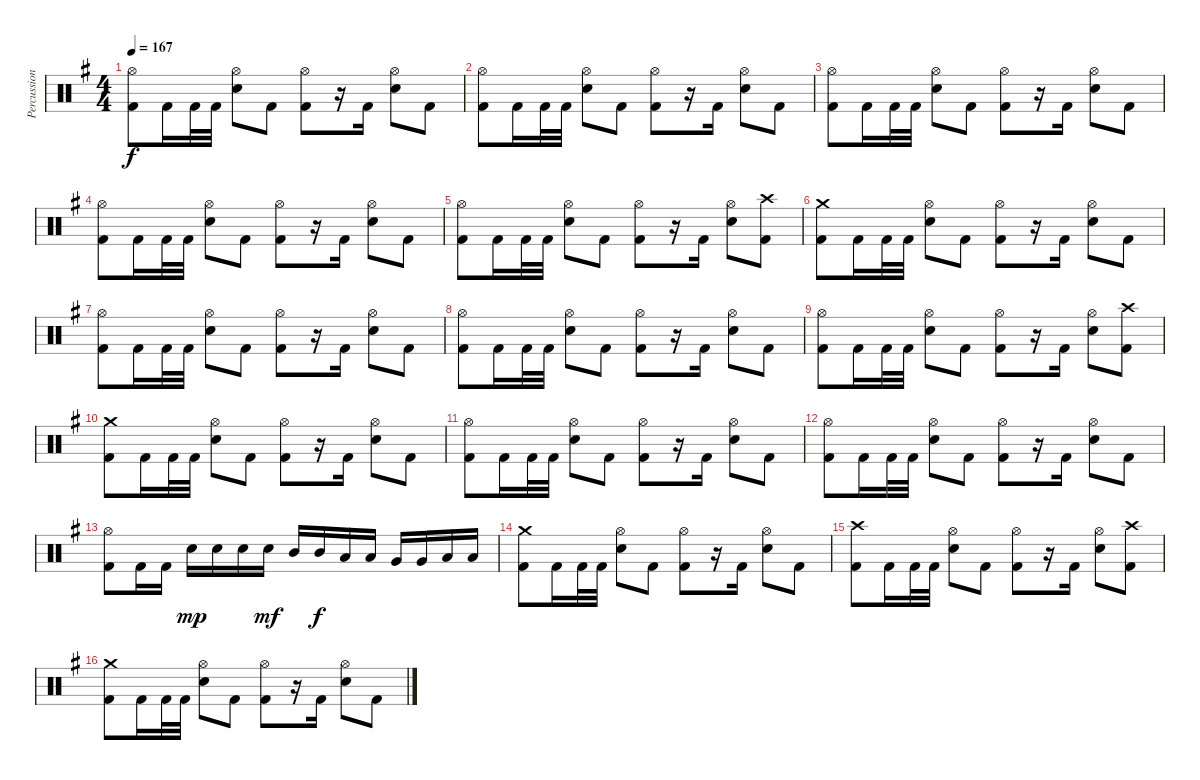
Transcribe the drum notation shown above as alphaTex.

\track ("Percussion" "Percussion") {instrument percussion}
\staff {score}
\articulation defaults
\ts (4 4)
\tempo 167
\clef neutral
\ks g
("Hi-Hat (open)" "Kick (hit) 2").8{dy f} "Kick (hit) 2".16 "Kick (hit) 2".32 "Kick (hit) 2".32 ("Hi-Hat (open)" "Snare (hit) 2").8 "Kick (hit) 2".8 ("Hi-Hat (open)" "Kick (hit) 2").8 r.16 "Kick (hit) 2".16 ("Hi-Hat (open)" "Snare (hit) 2").8 "Kick (hit) 2".8 |
("Hi-Hat (open)" "Kick (hit) 2").8 "Kick (hit) 2".16 "Kick (hit) 2".32 "Kick (hit) 2".32 ("Hi-Hat (open)" "Snare (hit) 2").8 "Kick (hit) 2".8 ("Hi-Hat (open)" "Kick (hit) 2").8 r.16 "Kick (hit) 2".16 ("Hi-Hat (open)" "Snare (hit) 2").8 "Kick (hit) 2".8 |
("Hi-Hat (open)" "Kick (hit) 2").8 "Kick (hit) 2".16 "Kick (hit) 2".32 "Kick (hit) 2".32 ("Hi-Hat (open)" "Snare (hit) 2").8 "Kick (hit) 2".8 ("Hi-Hat (open)" "Kick (hit) 2").8 r.16 "Kick (hit) 2".16 ("Hi-Hat (open)" "Snare (hit) 2").8 "Kick (hit) 2".8 |
("Hi-Hat (open)" "Kick (hit) 2").8 "Kick (hit) 2".16 "Kick (hit) 2".32 "Kick (hit) 2".32 ("Hi-Hat (open)" "Snare (hit) 2").8 "Kick (hit) 2".8 ("Hi-Hat (open)" "Kick (hit) 2").8 r.16 "Kick (hit) 2".16 ("Hi-Hat (open)" "Snare (hit) 2").8 "Kick (hit) 2".8 |
("Hi-Hat (open)" "Kick (hit) 2").8 "Kick (hit) 2".16 "Kick (hit) 2".32 "Kick (hit) 2".32 ("Hi-Hat (open)" "Snare (hit) 2").8 "Kick (hit) 2".8 ("Hi-Hat (open)" "Kick (hit) 2").8 r.16 "Kick (hit) 2".16 ("Hi-Hat (open)" "Snare (hit) 2").8 ("Crash high (hit)" "Kick (hit) 2").8 |
("Crash medium (hit)" "Kick (hit) 2").8 "Kick (hit) 2".16 "Kick (hit) 2".32 "Kick (hit) 2".32 ("Hi-Hat (open)" "Snare (hit) 2").8 "Kick (hit) 2".8 ("Hi-Hat (open)" "Kick (hit) 2").8 r.16 "Kick (hit) 2".16 ("Hi-Hat (open)" "Snare (hit) 2").8 "Kick (hit) 2".8 |
("Hi-Hat (open)" "Kick (hit) 2").8 "Kick (hit) 2".16 "Kick (hit) 2".32 "Kick (hit) 2".32 ("Hi-Hat (open)" "Snare (hit) 2").8 "Kick (hit) 2".8 ("Hi-Hat (open)" "Kick (hit) 2").8 r.16 "Kick (hit) 2".16 ("Hi-Hat (open)" "Snare (hit) 2").8 "Kick (hit) 2".8 |
("Hi-Hat (open)" "Kick (hit) 2").8 "Kick (hit) 2".16 "Kick (hit) 2".32 "Kick (hit) 2".32 ("Hi-Hat (open)" "Snare (hit) 2").8 "Kick (hit) 2".8 ("Hi-Hat (open)" "Kick (hit) 2").8 r.16 "Kick (hit) 2".16 ("Hi-Hat (open)" "Snare (hit) 2").8 "Kick (hit) 2".8 |
("Hi-Hat (open)" "Kick (hit) 2").8 "Kick (hit) 2".16 "Kick (hit) 2".32 "Kick (hit) 2".32 ("Hi-Hat (open)" "Snare (hit) 2").8 "Kick (hit) 2".8 ("Hi-Hat (open)" "Kick (hit) 2").8 r.16 "Kick (hit) 2".16 ("Hi-Hat (open)" "Snare (hit) 2").8 ("Crash high (hit)" "Kick (hit) 2").8 |
("Crash medium (hit)" "Kick (hit) 2").8 "Kick (hit) 2".16 "Kick (hit) 2".32 "Kick (hit) 2".32 ("Hi-Hat (open)" "Snare (hit) 2").8 "Kick (hit) 2".8 ("Hi-Hat (open)" "Kick (hit) 2").8 r.16 "Kick (hit) 2".16 ("Hi-Hat (open)" "Snare (hit) 2").8 "Kick (hit) 2".8 |
("Hi-Hat (open)" "Kick (hit) 2").8 "Kick (hit) 2".16 "Kick (hit) 2".32 "Kick (hit) 2".32 ("Hi-Hat (open)" "Snare (hit) 2").8 "Kick (hit) 2".8 ("Hi-Hat (open)" "Kick (hit) 2").8 r.16 "Kick (hit) 2".16 ("Hi-Hat (open)" "Snare (hit) 2").8 "Kick (hit) 2".8 |
("Hi-Hat (open)" "Kick (hit) 2").8 "Kick (hit) 2".16 "Kick (hit) 2".32 "Kick (hit) 2".32 ("Hi-Hat (open)" "Snare (hit) 2").8 "Kick (hit) 2".8 ("Hi-Hat (open)" "Kick (hit) 2").8 r.16 "Kick (hit) 2".16 ("Hi-Hat (open)" "Snare (hit) 2").8 "Kick (hit) 2".8 |
("Hi-Hat (open)" "Kick (hit) 2").8 "Kick (hit) 2".16 "Kick (hit) 2".16 "Snare (hit) 2".16{dy mp} "Snare (hit) 2".16 "Snare (hit) 2".16 "Snare (hit) 2".16{dy mf} "Mid Tom (hit)".16 "Mid Tom (hit)".16{dy f} "Low Tom (hit)".16 "Low Tom (hit)".16 "Very Low Tom (hit)".16 "Very Low Tom (hit)".16 "Low Floor Tom (hit)".16 "Low Floor Tom (hit)".16 |
("Crash medium (hit)" "Kick (hit) 2").8 "Kick (hit) 2".16 "Kick (hit) 2".32 "Kick (hit) 2".32 ("Hi-Hat (open)" "Snare (hit) 2").8 "Kick (hit) 2".8 ("Hi-Hat (open)" "Kick (hit) 2").8 r.16 "Kick (hit) 2".16 ("Hi-Hat (open)" "Snare (hit) 2").8 "Kick (hit) 2".8 |
("Crash high (hit)" "Kick (hit) 2").8 "Kick (hit) 2".16 "Kick (hit) 2".32 "Kick (hit) 2".32 ("Hi-Hat (open)" "Snare (hit) 2").8 "Kick (hit) 2".8 ("Hi-Hat (open)" "Kick (hit) 2").8 r.16 "Kick (hit) 2".16 ("Hi-Hat (open)" "Snare (hit) 2").8 ("Crash high (hit)" "Kick (hit) 2").8 |
("Crash medium (hit)" "Kick (hit) 2").8 "Kick (hit) 2".16 "Kick (hit) 2".32 "Kick (hit) 2".32 ("Hi-Hat (open)" "Snare (hit) 2").8 "Kick (hit) 2".8 ("Hi-Hat (open)" "Kick (hit) 2").8 r.16 "Kick (hit) 2".16 ("Hi-Hat (open)" "Snare (hit) 2").8 "Kick (hit) 2".8
